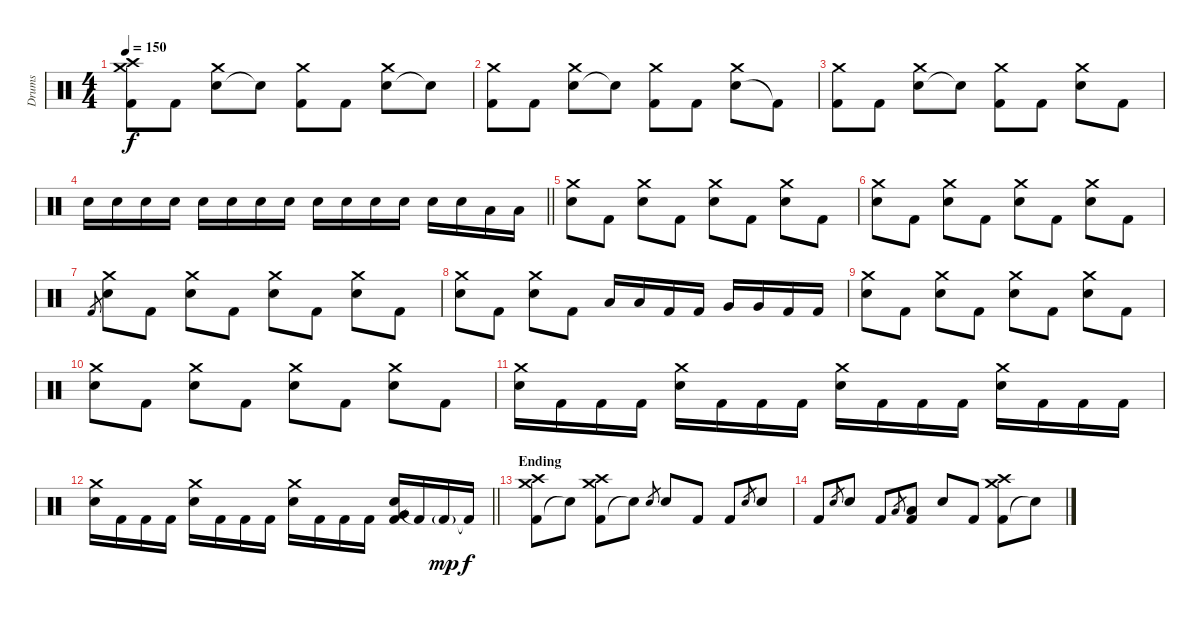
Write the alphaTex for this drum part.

\track ("Drums" "Drums") {instrument percussion}
\staff {score}
\articulation defaults
\ts (4 4)
\tempo 150
\clef neutral
\ks c
("Kick (hit) 2" "Crash medium (hit)" "Crash high (hit)").8{dy f} "Kick (hit) 2".8 ("Electric Snare (hit)" "Crash medium (hit)").8 "Snare (hit)"{t}.8 ("Kick (hit) 2" "Crash medium (hit)").8 "Kick (hit) 2".8 ("Electric Snare (hit)" "Crash medium (hit)").8 "Snare (hit)"{t}.8 |
("Kick (hit) 2" "Crash medium (hit)").8 "Kick (hit) 2".8 ("Electric Snare (hit)" "Crash medium (hit)").8 "Snare (hit)"{t}.8 ("Kick (hit) 2" "Crash medium (hit)").8 "Kick (hit) 2".8 ("Electric Snare (hit)" "Crash medium (hit)").8 "Kick (hit) 2"{t}.8 |
("Kick (hit) 2" "Crash medium (hit)").8 "Kick (hit) 2".8 ("Electric Snare (hit)" "Crash medium (hit)").8 "Snare (hit)"{t}.8 ("Kick (hit) 2" "Crash medium (hit)").8 "Kick (hit) 2".8 ("Electric Snare (hit)" "Crash medium (hit)").8 "Kick (hit) 2".8 |
\barLineRight lightlight "Electric Snare (hit)".16 "Electric Snare (hit)".16 "Electric Snare (hit)".16 "Electric Snare (hit)".16 "Electric Snare (hit)".16 "Electric Snare (hit)".16 "Electric Snare (hit)".16 "Electric Snare (hit)".16 "Electric Snare (hit)".16 "Electric Snare (hit)".16 "Electric Snare (hit)".16 "Electric Snare (hit)".16 "Electric Snare (hit)".16 "Electric Snare (hit)".16 "Low Floor Tom (hit)".16 "Low Floor Tom (hit)".16
|
("Electric Snare (hit)" "Crash medium (hit)").8 "Kick (hit) 2".8 ("Electric Snare (hit)" "Crash medium (hit)").8 "Kick (hit) 2".8 ("Electric Snare (hit)" "Crash medium (hit)").8 "Kick (hit) 2".8 ("Electric Snare (hit)" "Crash medium (hit)").8 "Kick (hit) 2".8 |
("Electric Snare (hit)" "Crash medium (hit)").8 "Kick (hit) 2".8 ("Electric Snare (hit)" "Crash medium (hit)").8 "Kick (hit) 2".8 ("Electric Snare (hit)" "Crash medium (hit)").8 "Kick (hit) 2".8 ("Electric Snare (hit)" "Crash medium (hit)").8 "Kick (hit) 2".8 |
"Kick (hit) 2".8{gr} ("Electric Snare (hit)" "Crash medium (hit)").8 "Kick (hit) 2".8 ("Electric Snare (hit)" "Crash medium (hit)").8 "Kick (hit) 2".8 ("Electric Snare (hit)" "Crash medium (hit)").8 "Kick (hit) 2".8 ("Electric Snare (hit)" "Crash medium (hit)").8 "Kick (hit) 2".8 |
("Electric Snare (hit)" "Crash medium (hit)").8 "Kick (hit) 2".8 ("Electric Snare (hit)" "Crash medium (hit)").8 "Kick (hit) 2".8 "Low Tom (hit)".16 "Low Tom (hit)".16 "Kick (hit) 2".16 "Kick (hit) 2".16 "Very Low Tom (hit)".16 "Very Low Tom (hit)".16 "Kick (hit) 2".16 "Kick (hit) 2".16 |
("Electric Snare (hit)" "Crash medium (hit)").8 "Kick (hit) 2".8 ("Electric Snare (hit)" "Crash medium (hit)").8 "Kick (hit) 2".8 ("Electric Snare (hit)" "Crash medium (hit)").8 "Kick (hit) 2".8 ("Electric Snare (hit)" "Crash medium (hit)").8 "Kick (hit) 2".8 |
("Electric Snare (hit)" "Crash medium (hit)").8 "Kick (hit) 2".8 ("Electric Snare (hit)" "Crash medium (hit)").8 "Kick (hit) 2".8 ("Electric Snare (hit)" "Crash medium (hit)").8 "Kick (hit) 2".8 ("Electric Snare (hit)" "Crash medium (hit)").8 "Kick (hit) 2".8 |
("Electric Snare (hit)" "Crash medium (hit)").16 "Kick (hit) 2".16 "Kick (hit) 2".16 "Kick (hit) 2".16 ("Electric Snare (hit)" "Crash medium (hit)").16 "Kick (hit) 2".16 "Kick (hit) 2".16 "Kick (hit) 2".16 ("Electric Snare (hit)" "Crash medium (hit)").16 "Kick (hit) 2".16 "Kick (hit) 2".16 "Kick (hit) 2".16 ("Electric Snare (hit)" "Crash medium (hit)").16 "Kick (hit) 2".16 "Kick (hit) 2".16 "Kick (hit) 2".16 |
\barLineRight lightlight
("Electric Snare (hit)" "Crash medium (hit)").16 "Kick (hit) 2".16 "Kick (hit) 2".16 "Kick (hit) 2".16 ("Electric Snare (hit)" "Crash medium (hit)").16 "Kick (hit) 2".16 "Kick (hit) 2".16 "Kick (hit) 2".16 ("Electric Snare (hit)" "Crash medium (hit)").16 "Kick (hit) 2".16 "Kick (hit) 2".16 "Kick (hit) 2".16 ("Electric Snare (hit)" "Very Low Tom (hit)" "Kick (hit) 2").16 "Kick (hit) 2"{t}.16 "Kick (hit) 2"{g}.16{dy mp} "Kick (hit) 2"{t}.16{dy f} |
\section ("" "Ending")
("Kick (hit) 2" "Crash medium (hit)" "Crash high (hit)").8 "Snare (hit)"{t}.8 ("Kick (hit) 2" "Crash medium (hit)" "Crash high (hit)").8 "Electric Snare (hit)"{t}.8 "Electric Snare (hit)".8{gr} "Electric Snare (hit)".8 "Kick (hit) 2".8 "Kick (hit) 2".8 "Electric Snare (hit)".8{gr} "Electric Snare (hit)".8 |
"Kick (hit) 2".8 "Electric Snare (hit)".8{gr} "Electric Snare (hit)".8 "Kick (hit) 2".8 "Low Floor Tom (hit)".8{gr} ("Kick (hit) 2" "Low Floor Tom (hit)").8 "Electric Snare (hit)".8 "Kick (hit) 2".8 ("Kick (hit) 2" "Crash medium (hit)" "Crash high (hit)").8 "Snare (hit)"{t}.8
